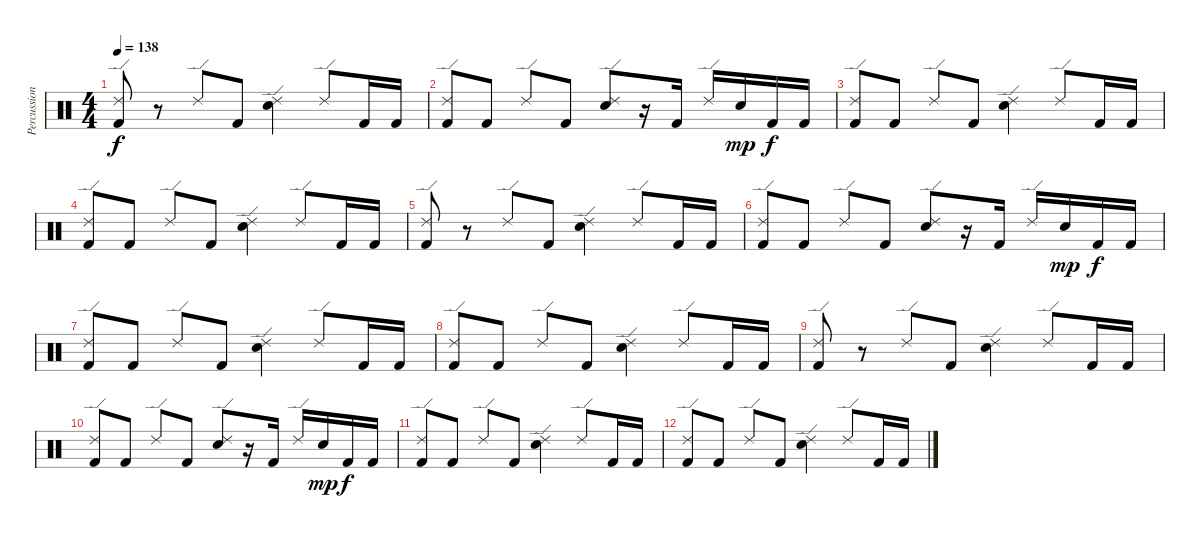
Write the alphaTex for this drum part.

\track ("Percussion" "Percussion") {instrument percussion}
\staff {score}
\articulation defaults
\ts (4 4)
\tempo 138
\clef neutral
\ks c
("Ride (edge) 2" "Kick (hit) 2").8{dy f} r.8 "Ride (edge) 2".8 "Kick (hit) 2".8 ("Ride (edge) 2" "Electric Snare (hit)").4 "Ride (edge) 2".8 "Kick (hit) 2".16 "Kick (hit) 2".16 |
("Ride (edge) 2" "Kick (hit) 2").8 "Kick (hit) 2".8 "Ride (edge) 2".8 "Kick (hit) 2".8 ("Ride (edge) 2" "Electric Snare (hit)").8 r.16 "Kick (hit) 2".16 "Ride (edge) 2".16 "Electric Snare (hit)".16{dy mp} "Kick (hit) 2".16{dy f} "Kick (hit) 2".16 |
("Ride (edge) 2" "Kick (hit) 2").8 "Kick (hit) 2".8 "Ride (edge) 2".8 "Kick (hit) 2".8 ("Ride (edge) 2" "Electric Snare (hit)").4 "Ride (edge) 2".8 "Kick (hit) 2".16 "Kick (hit) 2".16 |
("Ride (edge) 2" "Kick (hit) 2").8 "Kick (hit) 2".8 "Ride (edge) 2".8 "Kick (hit) 2".8 ("Ride (edge) 2" "Electric Snare (hit)").4 "Ride (edge) 2".8 "Kick (hit) 2".16 "Kick (hit) 2".16 |
("Ride (edge) 2" "Kick (hit) 2").8{volume 7} r.8 "Ride (edge) 2".8 "Kick (hit) 2".8 ("Ride (edge) 2" "Electric Snare (hit)").4 "Ride (edge) 2".8 "Kick (hit) 2".16 "Kick (hit) 2".16 |
("Ride (edge) 2" "Kick (hit) 2").8 "Kick (hit) 2".8 "Ride (edge) 2".8 "Kick (hit) 2".8 ("Ride (edge) 2" "Electric Snare (hit)").8 r.16 "Kick (hit) 2".16 "Ride (edge) 2".16 "Electric Snare (hit)".16{dy mp} "Kick (hit) 2".16{dy f} "Kick (hit) 2".16 |
("Ride (edge) 2" "Kick (hit) 2").8 "Kick (hit) 2".8 "Ride (edge) 2".8 "Kick (hit) 2".8 ("Ride (edge) 2" "Electric Snare (hit)").4 "Ride (edge) 2".8 "Kick (hit) 2".16 "Kick (hit) 2".16 |
("Ride (edge) 2" "Kick (hit) 2").8 "Kick (hit) 2".8 "Ride (edge) 2".8 "Kick (hit) 2".8 ("Ride (edge) 2" "Electric Snare (hit)").4 "Ride (edge) 2".8 "Kick (hit) 2".16 "Kick (hit) 2".16 |
("Ride (edge) 2" "Kick (hit) 2").8{volume 0} r.8 "Ride (edge) 2".8 "Kick (hit) 2".8 ("Ride (edge) 2" "Electric Snare (hit)").4 "Ride (edge) 2".8 "Kick (hit) 2".16 "Kick (hit) 2".16 |
("Ride (edge) 2" "Kick (hit) 2").8 "Kick (hit) 2".8 "Ride (edge) 2".8 "Kick (hit) 2".8 ("Ride (edge) 2" "Electric Snare (hit)").8 r.16 "Kick (hit) 2".16 "Ride (edge) 2".16 "Electric Snare (hit)".16{dy mp} "Kick (hit) 2".16{dy f} "Kick (hit) 2".16 |
("Ride (edge) 2" "Kick (hit) 2").8 "Kick (hit) 2".8 "Ride (edge) 2".8 "Kick (hit) 2".8 ("Ride (edge) 2" "Electric Snare (hit)").4 "Ride (edge) 2".8 "Kick (hit) 2".16 "Kick (hit) 2".16 |
("Ride (edge) 2" "Kick (hit) 2").8 "Kick (hit) 2".8 "Ride (edge) 2".8 "Kick (hit) 2".8 ("Ride (edge) 2" "Electric Snare (hit)").4 "Ride (edge) 2".8 "Kick (hit) 2".16 "Kick (hit) 2".16
